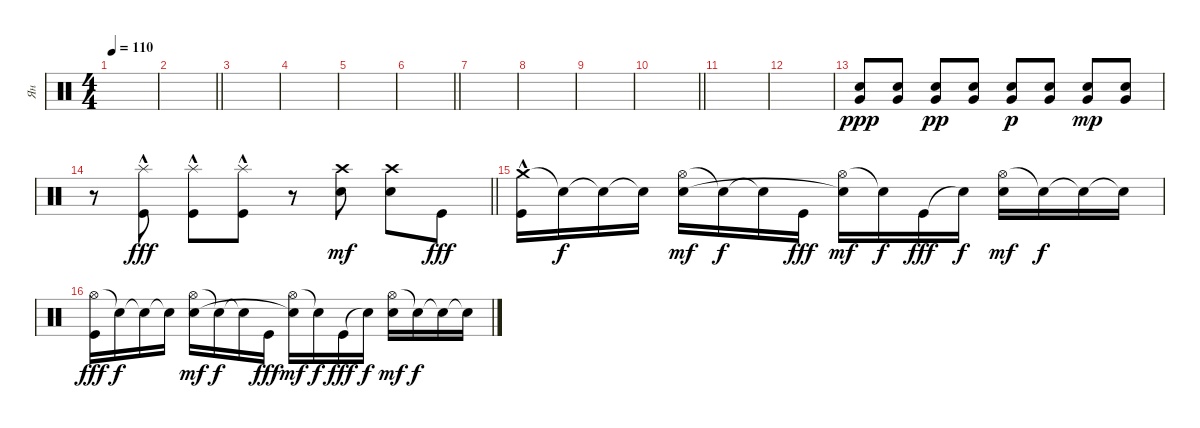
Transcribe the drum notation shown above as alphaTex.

\track ("Ян " "Ян ") {instrument percussion}
\staff
\articulation defaults
\ts (4 4)
\tempo 110
\clef neutral
\ks c
|
\barLineRight lightlight
|
|
|
|
\barLineRight lightlight
|
|
|
|
\barLineRight lightlight
|
|
|
("Very Low Tom (hit)" "Snare (hit) 2").8{dy ppp} ("Very Low Tom (hit)" "Snare (hit) 2").8 ("Very Low Tom (hit)" "Snare (hit) 2").8{dy pp} ("Very Low Tom (hit)" "Snare (hit) 2").8 ("Very Low Tom (hit)" "Snare (hit) 2").8{dy p} ("Very Low Tom (hit)" "Snare (hit) 2").8 ("Very Low Tom (hit)" "Snare (hit) 2").8{dy mp} ("Very Low Tom (hit)" "Snare (hit) 2").8 |
\barLineRight lightlight
r.8 ("Splash (hit)" "Kick (hit)"{hac}).8{dy fff} ("Splash (hit)" "Kick (hit)"{hac}).8 ("Splash (hit)" "Kick (hit)"{hac}).8 r.8 ("Crash high (hit)" "Snare (hit) 2").8{dy mf} ("Crash high (hit)" "Snare (hit) 2").8 "Kick (hit)".8{dy fff} |
("Crash medium (hit)" "Kick (hit)"{hac}).16 "Snare (hit)"{t}.16{dy f} "Snare (hit)"{t}.16 "Snare (hit)"{t}.16 ("Hi-Hat (open)" "Snare (hit) 2").16{dy mf} "Snare (hit)"{t}.16{dy f} "Snare (hit)"{t}.16 "Kick (hit)".16{dy fff} ("Hi-Hat (open)" "Snare (hit)"{t}).16{dy mf} "Snare (hit)"{t}.16{dy f} "Kick (hit)".16{dy fff} "Snare (hit)"{t}.16{dy f} ("Hi-Hat (open)" "Snare (hit) 2").16{dy mf} "Snare (hit)"{t}.16{dy f} "Snare (hit)"{t}.16 "Snare (hit)"{t}.16 |
("Hi-Hat (open)" "Kick (hit)").16{dy fff} "Snare (hit)"{t}.16{dy f} "Snare (hit)"{t}.16 "Snare (hit)"{t}.16 ("Hi-Hat (open)" "Snare (hit) 2").16{dy mf} "Snare (hit)"{t}.16{dy f} "Snare (hit)"{t}.16 "Kick (hit)".16{dy fff} ("Hi-Hat (open)" "Snare (hit)"{t}).16{dy mf} "Snare (hit)"{t}.16{dy f} "Kick (hit)".16{dy fff} "Snare (hit)"{t}.16{dy f} ("Hi-Hat (open)" "Snare (hit) 2").16{dy mf} "Snare (hit)"{t}.16{dy f} "Snare (hit)"{t}.16 "Snare (hit)"{t}.16
